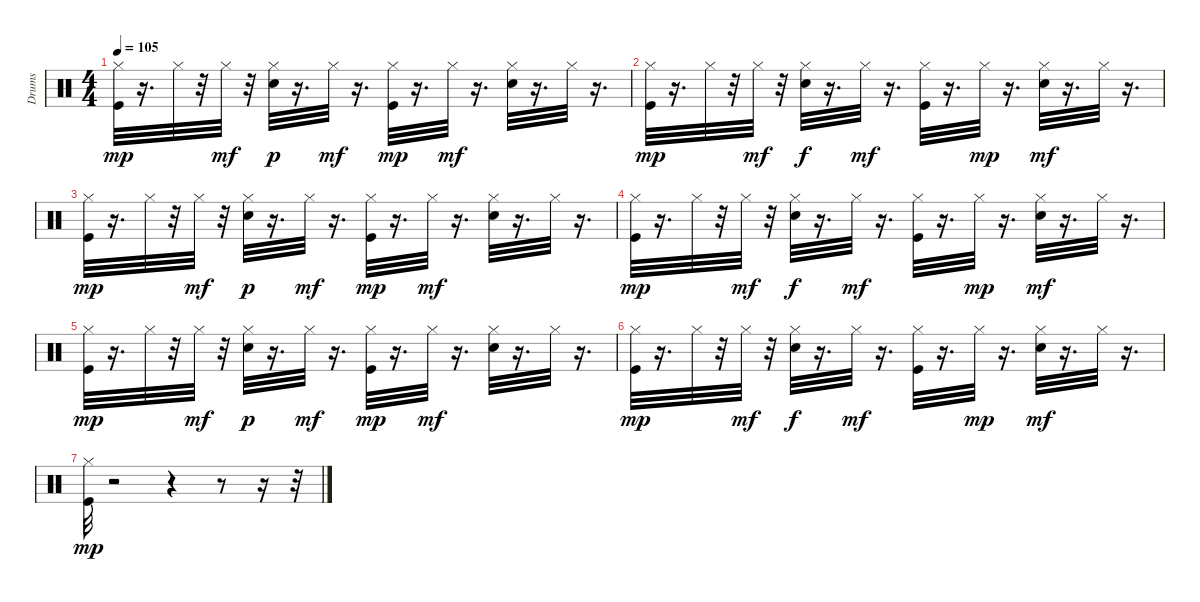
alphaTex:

\track ("Drums" "Drums") {instrument percussion}
\staff {score}
\articulation defaults
\ts (4 4)
\tempo 105
\clef neutral
\ks c
("Kick (hit)" "Hi-Hat (closed)").32{dy mp} r.16{d} "Hi-Hat (closed)".32 r.32 "Hi-Hat (closed)".32{dy mf} r.32 ("Snare (hit) 2" "Hi-Hat (closed)").32{dy p} r.16{d} "Hi-Hat (closed)".32{dy mf} r.16{d} ("Kick (hit)" "Hi-Hat (closed)").32{dy mp} r.16{d} "Hi-Hat (closed)".32{dy mf} r.16{d} ("Snare (hit) 2" "Hi-Hat (closed)").32 r.16{d} "Hi-Hat (closed)".32 r.16{d} |
("Kick (hit)" "Hi-Hat (closed)").32{dy mp} r.16{d} "Hi-Hat (closed)".32 r.32 "Hi-Hat (closed)".32{dy mf} r.32 ("Snare (hit) 2" "Hi-Hat (closed)").32{dy f} r.16{d} "Hi-Hat (closed)".32{dy mf} r.16{d} ("Kick (hit)" "Hi-Hat (closed)").32 r.16{d} "Hi-Hat (closed)".32{dy mp} r.16{d} ("Snare (hit) 2" "Hi-Hat (closed)").32{dy mf} r.16{d} "Hi-Hat (closed)".32 r.16{d} |
("Kick (hit)" "Hi-Hat (closed)").32{dy mp} r.16{d} "Hi-Hat (closed)".32 r.32 "Hi-Hat (closed)".32{dy mf} r.32 ("Snare (hit) 2" "Hi-Hat (closed)").32{dy p} r.16{d} "Hi-Hat (closed)".32{dy mf} r.16{d} ("Kick (hit)" "Hi-Hat (closed)").32{dy mp} r.16{d} "Hi-Hat (closed)".32{dy mf} r.16{d} ("Snare (hit) 2" "Hi-Hat (closed)").32 r.16{d} "Hi-Hat (closed)".32 r.16{d} |
("Kick (hit)" "Hi-Hat (closed)").32{dy mp} r.16{d} "Hi-Hat (closed)".32 r.32 "Hi-Hat (closed)".32{dy mf} r.32 ("Snare (hit) 2" "Hi-Hat (closed)").32{dy f} r.16{d} "Hi-Hat (closed)".32{dy mf} r.16{d} ("Kick (hit)" "Hi-Hat (closed)").32 r.16{d} "Hi-Hat (closed)".32{dy mp} r.16{d} ("Snare (hit) 2" "Hi-Hat (closed)").32{dy mf} r.16{d} "Hi-Hat (closed)".32 r.16{d} |
("Kick (hit)" "Hi-Hat (closed)").32{dy mp} r.16{d} "Hi-Hat (closed)".32 r.32 "Hi-Hat (closed)".32{dy mf} r.32 ("Snare (hit) 2" "Hi-Hat (closed)").32{dy p} r.16{d} "Hi-Hat (closed)".32{dy mf} r.16{d} ("Kick (hit)" "Hi-Hat (closed)").32{dy mp} r.16{d} "Hi-Hat (closed)".32{dy mf} r.16{d} ("Snare (hit) 2" "Hi-Hat (closed)").32 r.16{d} "Hi-Hat (closed)".32 r.16{d} |
("Kick (hit)" "Hi-Hat (closed)").32{dy mp} r.16{d} "Hi-Hat (closed)".32 r.32 "Hi-Hat (closed)".32{dy mf} r.32 ("Snare (hit) 2" "Hi-Hat (closed)").32{dy f} r.16{d} "Hi-Hat (closed)".32{dy mf} r.16{d} ("Kick (hit)" "Hi-Hat (closed)").32 r.16{d} "Hi-Hat (closed)".32{dy mp} r.16{d} ("Snare (hit) 2" "Hi-Hat (closed)").32{dy mf} r.16{d} "Hi-Hat (closed)".32 r.16{d} |
("Kick (hit)" "Hi-Hat (closed)").32{dy mp} r.2 r.4 r.8 r.16 r.32
